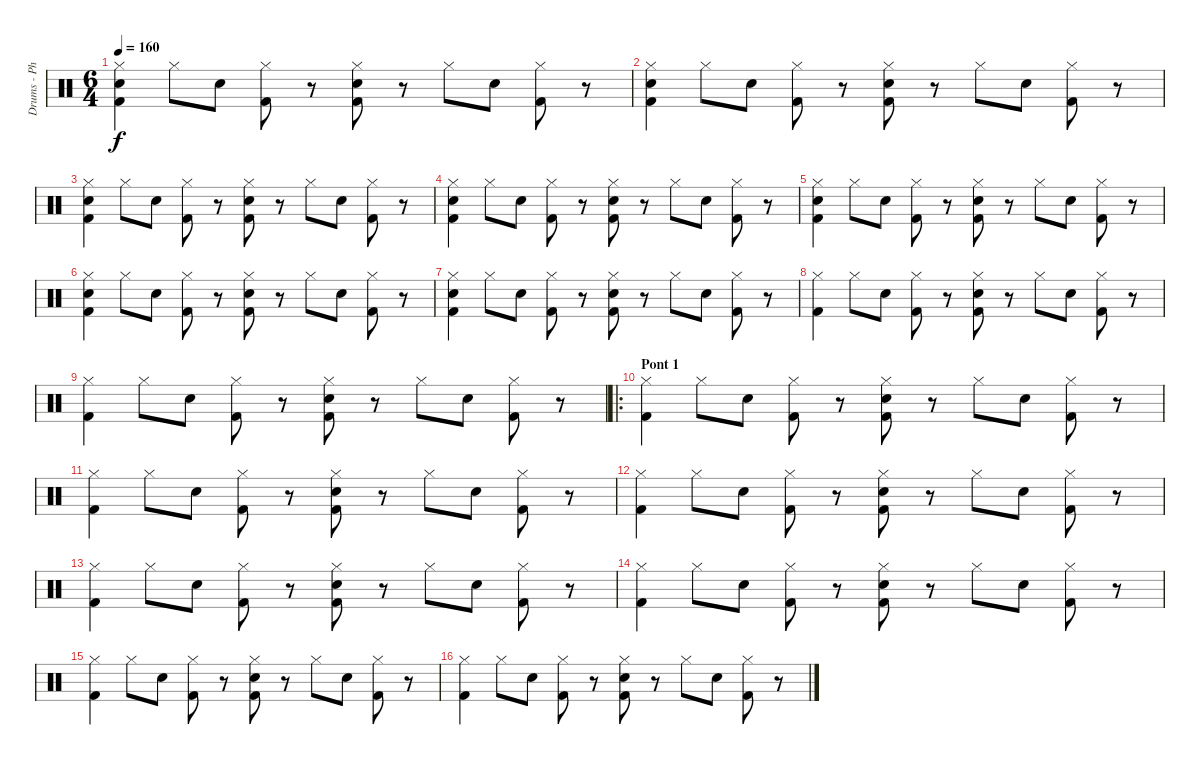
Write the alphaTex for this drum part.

\track ("Drums - Phil Selway" "Drums - Ph") {instrument percussion}
\staff {score}
\articulation defaults
\ts (6 4)
\tempo 160
\clef neutral
\ks c
("Hi-Hat (closed)" "Snare (hit) 2" "Kick (hit) 2").4{dy f} "Hi-Hat (closed)".8 "Snare (hit) 2".8 ("Hi-Hat (closed)" "Kick (hit) 2").8 r.8 ("Hi-Hat (closed)" "Snare (hit) 2" "Kick (hit) 2").8 r.8 "Hi-Hat (closed)".8 "Snare (hit) 2".8 ("Hi-Hat (closed)" "Kick (hit) 2").8 r.8 |
("Hi-Hat (closed)" "Snare (hit) 2" "Kick (hit) 2").4 "Hi-Hat (closed)".8 "Snare (hit) 2".8 ("Hi-Hat (closed)" "Kick (hit) 2").8 r.8 ("Hi-Hat (closed)" "Snare (hit) 2" "Kick (hit) 2").8 r.8 "Hi-Hat (closed)".8 "Snare (hit) 2".8 ("Hi-Hat (closed)" "Kick (hit) 2").8 r.8 |
("Hi-Hat (closed)" "Snare (hit) 2" "Kick (hit) 2").4 "Hi-Hat (closed)".8 "Snare (hit) 2".8 ("Hi-Hat (closed)" "Kick (hit) 2").8 r.8 ("Hi-Hat (closed)" "Snare (hit) 2" "Kick (hit) 2").8 r.8 "Hi-Hat (closed)".8 "Snare (hit) 2".8 ("Hi-Hat (closed)" "Kick (hit) 2").8 r.8 |
("Hi-Hat (closed)" "Snare (hit) 2" "Kick (hit) 2").4 "Hi-Hat (closed)".8 "Snare (hit) 2".8 ("Hi-Hat (closed)" "Kick (hit) 2").8 r.8 ("Hi-Hat (closed)" "Snare (hit) 2" "Kick (hit) 2").8 r.8 "Hi-Hat (closed)".8 "Snare (hit) 2".8 ("Hi-Hat (closed)" "Kick (hit) 2").8 r.8 |
("Hi-Hat (closed)" "Snare (hit) 2" "Kick (hit) 2").4 "Hi-Hat (closed)".8 "Snare (hit) 2".8 ("Hi-Hat (closed)" "Kick (hit) 2").8 r.8 ("Hi-Hat (closed)" "Snare (hit) 2" "Kick (hit) 2").8 r.8 "Hi-Hat (closed)".8 "Snare (hit) 2".8 ("Hi-Hat (closed)" "Kick (hit) 2").8 r.8 |
("Hi-Hat (closed)" "Snare (hit) 2" "Kick (hit) 2").4 "Hi-Hat (closed)".8 "Snare (hit) 2".8 ("Hi-Hat (closed)" "Kick (hit) 2").8 r.8 ("Hi-Hat (closed)" "Snare (hit) 2" "Kick (hit) 2").8 r.8 "Hi-Hat (closed)".8 "Snare (hit) 2".8 ("Hi-Hat (closed)" "Kick (hit) 2").8 r.8 |
("Hi-Hat (closed)" "Snare (hit) 2" "Kick (hit) 2").4 "Hi-Hat (closed)".8 "Snare (hit) 2".8 ("Hi-Hat (closed)" "Kick (hit) 2").8 r.8 ("Hi-Hat (closed)" "Snare (hit) 2" "Kick (hit) 2").8 r.8 "Hi-Hat (closed)".8 "Snare (hit) 2".8 ("Hi-Hat (closed)" "Kick (hit) 2").8 r.8 |
("Hi-Hat (closed)" "Kick (hit) 2").4 "Hi-Hat (closed)".8 "Snare (hit) 2".8 ("Hi-Hat (closed)" "Kick (hit) 2").8 r.8 ("Hi-Hat (closed)" "Snare (hit) 2" "Kick (hit) 2").8 r.8 "Hi-Hat (closed)".8 "Snare (hit) 2".8 ("Hi-Hat (closed)" "Kick (hit) 2").8 r.8 |
("Hi-Hat (closed)" "Kick (hit) 2").4 "Hi-Hat (closed)".8 "Snare (hit) 2".8 ("Hi-Hat (closed)" "Kick (hit) 2").8 r.8 ("Hi-Hat (closed)" "Snare (hit) 2" "Kick (hit) 2").8 r.8 "Hi-Hat (closed)".8 "Snare (hit) 2".8 ("Hi-Hat (closed)" "Kick (hit) 2").8 r.8 |
\ro
\section ("" "Pont 1")
("Hi-Hat (closed)" "Kick (hit) 2").4 "Hi-Hat (closed)".8 "Snare (hit) 2".8 ("Hi-Hat (closed)" "Kick (hit) 2").8 r.8 ("Hi-Hat (closed)" "Snare (hit) 2" "Kick (hit) 2").8 r.8 "Hi-Hat (closed)".8 "Snare (hit) 2".8 ("Hi-Hat (closed)" "Kick (hit) 2").8 r.8 |
("Hi-Hat (closed)" "Kick (hit) 2").4 "Hi-Hat (closed)".8 "Snare (hit) 2".8 ("Hi-Hat (closed)" "Kick (hit) 2").8 r.8 ("Hi-Hat (closed)" "Snare (hit) 2" "Kick (hit) 2").8 r.8 "Hi-Hat (closed)".8 "Snare (hit) 2".8 ("Hi-Hat (closed)" "Kick (hit) 2").8 r.8 |
("Hi-Hat (closed)" "Kick (hit) 2").4 "Hi-Hat (closed)".8 "Snare (hit) 2".8 ("Hi-Hat (closed)" "Kick (hit) 2").8 r.8 ("Hi-Hat (closed)" "Snare (hit) 2" "Kick (hit) 2").8 r.8 "Hi-Hat (closed)".8 "Snare (hit) 2".8 ("Hi-Hat (closed)" "Kick (hit) 2").8 r.8 |
("Hi-Hat (closed)" "Kick (hit) 2").4 "Hi-Hat (closed)".8 "Snare (hit) 2".8 ("Hi-Hat (closed)" "Kick (hit) 2").8 r.8 ("Hi-Hat (closed)" "Snare (hit) 2" "Kick (hit) 2").8 r.8 "Hi-Hat (closed)".8 "Snare (hit) 2".8 ("Hi-Hat (closed)" "Kick (hit) 2").8 r.8 |
("Hi-Hat (closed)" "Kick (hit) 2").4 "Hi-Hat (closed)".8 "Snare (hit) 2".8 ("Hi-Hat (closed)" "Kick (hit) 2").8 r.8 ("Hi-Hat (closed)" "Snare (hit) 2" "Kick (hit) 2").8 r.8 "Hi-Hat (closed)".8 "Snare (hit) 2".8 ("Hi-Hat (closed)" "Kick (hit) 2").8 r.8 |
("Hi-Hat (closed)" "Kick (hit) 2").4 "Hi-Hat (closed)".8 "Snare (hit) 2".8 ("Hi-Hat (closed)" "Kick (hit) 2").8 r.8 ("Hi-Hat (closed)" "Snare (hit) 2" "Kick (hit) 2").8 r.8 "Hi-Hat (closed)".8 "Snare (hit) 2".8 ("Hi-Hat (closed)" "Kick (hit) 2").8 r.8 |
("Hi-Hat (closed)" "Kick (hit) 2").4 "Hi-Hat (closed)".8 "Snare (hit) 2".8 ("Hi-Hat (closed)" "Kick (hit) 2").8 r.8 ("Hi-Hat (closed)" "Snare (hit) 2" "Kick (hit) 2").8 r.8 "Hi-Hat (closed)".8 "Snare (hit) 2".8 ("Hi-Hat (closed)" "Kick (hit) 2").8 r.8
